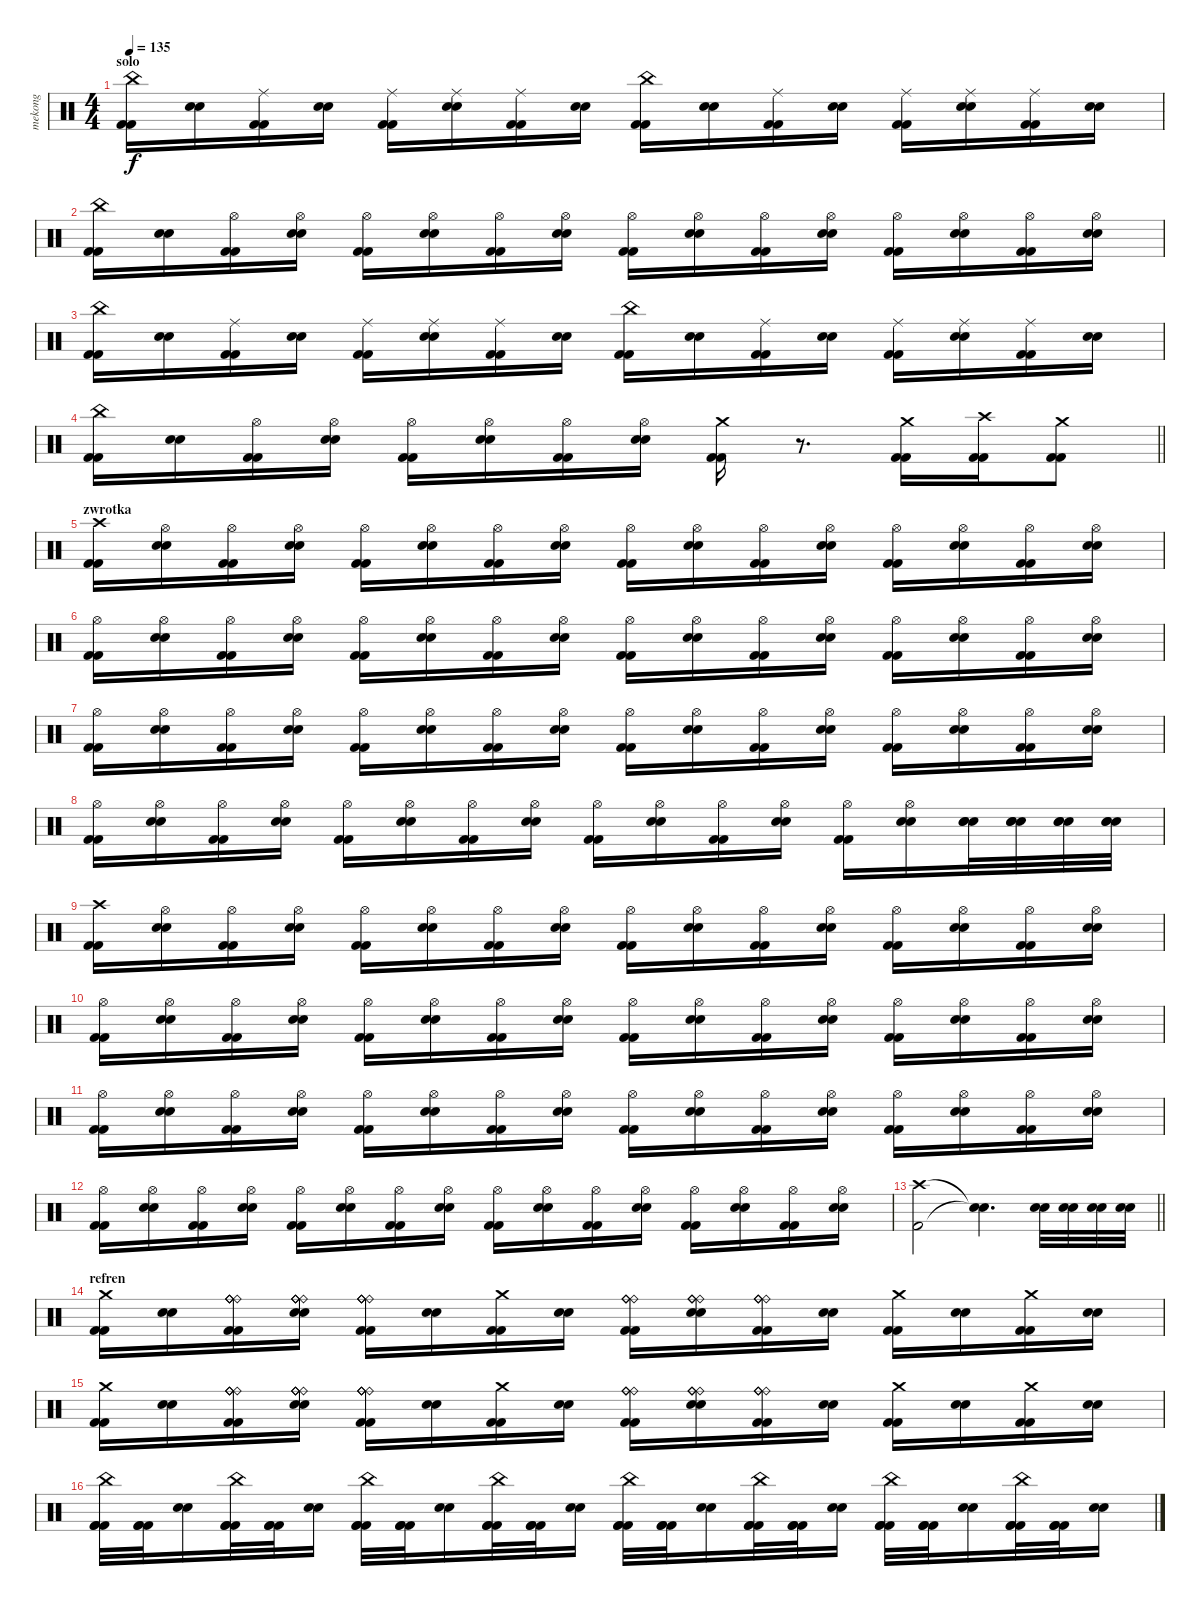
\track ("mekong" "mekong") {instrument percussion}
\staff {score}
\articulation defaults
\ts (4 4)
\section ("" "solo")
\tempo 135
\clef neutral
\ks c
("China (hit)" "Kick (hit) 2" "Kick (hit) 2").16{dy f} ("Electric Snare (hit)" "Electric Snare (hit)").16 ("Ride (middle)" "Kick (hit) 2" "Kick (hit) 2").16 ("Electric Snare (hit)" "Electric Snare (hit)").16 ("Ride (middle)" "Kick (hit) 2" "Kick (hit) 2").16 ("Ride (middle)" "Electric Snare (hit)" "Electric Snare (hit)").16 ("Ride (middle)" "Kick (hit) 2" "Kick (hit) 2").16 ("Electric Snare (hit)" "Electric Snare (hit)").16 ("China (hit)" "Kick (hit) 2" "Kick (hit) 2").16 ("Electric Snare (hit)" "Electric Snare (hit)").16 ("Ride (middle)" "Kick (hit) 2" "Kick (hit) 2").16 ("Electric Snare (hit)" "Electric Snare (hit)").16 ("Ride (middle)" "Kick (hit) 2" "Kick (hit) 2").16 ("Ride (middle)" "Electric Snare (hit)" "Electric Snare (hit)").16 ("Ride (middle)" "Kick (hit) 2" "Kick (hit) 2").16 ("Electric Snare (hit)" "Electric Snare (hit)").16 |
("China (hit)" "Kick (hit) 2" "Kick (hit) 2").16 ("Electric Snare (hit)" "Electric Snare (hit)").16 ("Hi-Hat (open)" "Kick (hit) 2" "Kick (hit) 2").16 ("Hi-Hat (open)" "Electric Snare (hit)" "Electric Snare (hit)").16 ("Hi-Hat (open)" "Kick (hit) 2" "Kick (hit) 2").16 ("Hi-Hat (open)" "Electric Snare (hit)" "Electric Snare (hit)").16 ("Hi-Hat (open)" "Kick (hit) 2" "Kick (hit) 2").16 ("Hi-Hat (open)" "Electric Snare (hit)" "Electric Snare (hit)").16 ("Hi-Hat (open)" "Kick (hit) 2" "Kick (hit) 2").16 ("Hi-Hat (open)" "Electric Snare (hit)" "Electric Snare (hit)").16 ("Hi-Hat (open)" "Kick (hit) 2" "Kick (hit) 2").16 ("Hi-Hat (open)" "Electric Snare (hit)" "Electric Snare (hit)").16 ("Hi-Hat (open)" "Kick (hit) 2" "Kick (hit) 2").16 ("Hi-Hat (open)" "Electric Snare (hit)" "Electric Snare (hit)").16 ("Hi-Hat (open)" "Kick (hit) 2" "Kick (hit) 2").16 ("Hi-Hat (open)" "Electric Snare (hit)" "Electric Snare (hit)").16 |
("China (hit)" "Kick (hit) 2" "Kick (hit) 2").16 ("Electric Snare (hit)" "Electric Snare (hit)").16 ("Ride (middle)" "Kick (hit) 2" "Kick (hit) 2").16 ("Electric Snare (hit)" "Electric Snare (hit)").16 ("Ride (middle)" "Kick (hit) 2" "Kick (hit) 2").16 ("Ride (middle)" "Electric Snare (hit)" "Electric Snare (hit)").16 ("Ride (middle)" "Kick (hit) 2" "Kick (hit) 2").16 ("Electric Snare (hit)" "Electric Snare (hit)").16 ("China (hit)" "Kick (hit) 2" "Kick (hit) 2").16 ("Electric Snare (hit)" "Electric Snare (hit)").16 ("Ride (middle)" "Kick (hit) 2" "Kick (hit) 2").16 ("Electric Snare (hit)" "Electric Snare (hit)").16 ("Ride (middle)" "Kick (hit) 2" "Kick (hit) 2").16 ("Ride (middle)" "Electric Snare (hit)" "Electric Snare (hit)").16 ("Ride (middle)" "Kick (hit) 2" "Kick (hit) 2").16 ("Electric Snare (hit)" "Electric Snare (hit)").16 |
\barLineRight lightlight
("China (hit)" "Kick (hit) 2" "Kick (hit) 2").16 ("Electric Snare (hit)" "Electric Snare (hit)").16 ("Hi-Hat (open)" "Kick (hit) 2" "Kick (hit) 2").16 ("Hi-Hat (open)" "Electric Snare (hit)" "Electric Snare (hit)").16 ("Hi-Hat (open)" "Kick (hit) 2" "Kick (hit) 2").16 ("Hi-Hat (open)" "Electric Snare (hit)" "Electric Snare (hit)").16 ("Hi-Hat (open)" "Kick (hit) 2" "Kick (hit) 2").16 ("Hi-Hat (open)" "Electric Snare (hit)" "Electric Snare (hit)").16 ("Crash medium (hit)" "Kick (hit) 2" "Kick (hit) 2").16 r.8{d} ("Crash medium (hit)" "Kick (hit) 2" "Kick (hit) 2").16 ("Crash high (hit)" "Kick (hit) 2" "Kick (hit) 2").16 ("Crash medium (hit)" "Kick (hit) 2" "Kick (hit) 2").8 |
\section ("" "zwrotka")
("Crash high (hit)" "Kick (hit) 2" "Kick (hit) 2").16 ("Hi-Hat (open)" "Electric Snare (hit)" "Electric Snare (hit)").16 ("Hi-Hat (open)" "Kick (hit) 2" "Kick (hit) 2").16 ("Hi-Hat (open)" "Electric Snare (hit)" "Electric Snare (hit)").16 ("Hi-Hat (open)" "Kick (hit) 2" "Kick (hit) 2").16 ("Hi-Hat (open)" "Electric Snare (hit)" "Electric Snare (hit)").16 ("Hi-Hat (open)" "Kick (hit) 2" "Kick (hit) 2").16 ("Hi-Hat (open)" "Electric Snare (hit)" "Electric Snare (hit)").16 ("Hi-Hat (open)" "Kick (hit) 2" "Kick (hit) 2").16 ("Hi-Hat (open)" "Electric Snare (hit)" "Electric Snare (hit)").16 ("Hi-Hat (open)" "Kick (hit) 2" "Kick (hit) 2").16 ("Hi-Hat (open)" "Electric Snare (hit)" "Electric Snare (hit)").16 ("Hi-Hat (open)" "Kick (hit) 2" "Kick (hit) 2").16 ("Hi-Hat (open)" "Electric Snare (hit)" "Electric Snare (hit)").16 ("Hi-Hat (open)" "Kick (hit) 2" "Kick (hit) 2").16 ("Hi-Hat (open)" "Electric Snare (hit)" "Electric Snare (hit)").16 |
("Hi-Hat (open)" "Kick (hit) 2" "Kick (hit) 2").16 ("Hi-Hat (open)" "Electric Snare (hit)" "Electric Snare (hit)").16 ("Hi-Hat (open)" "Kick (hit) 2" "Kick (hit) 2").16 ("Hi-Hat (open)" "Electric Snare (hit)" "Electric Snare (hit)").16 ("Hi-Hat (open)" "Kick (hit) 2" "Kick (hit) 2").16 ("Hi-Hat (open)" "Electric Snare (hit)" "Electric Snare (hit)").16 ("Hi-Hat (open)" "Kick (hit) 2" "Kick (hit) 2").16 ("Hi-Hat (open)" "Electric Snare (hit)" "Electric Snare (hit)").16 ("Hi-Hat (open)" "Kick (hit) 2" "Kick (hit) 2").16 ("Hi-Hat (open)" "Electric Snare (hit)" "Electric Snare (hit)").16 ("Hi-Hat (open)" "Kick (hit) 2" "Kick (hit) 2").16 ("Hi-Hat (open)" "Electric Snare (hit)" "Electric Snare (hit)").16 ("Hi-Hat (open)" "Kick (hit) 2" "Kick (hit) 2").16 ("Hi-Hat (open)" "Electric Snare (hit)" "Electric Snare (hit)").16 ("Hi-Hat (open)" "Kick (hit) 2" "Kick (hit) 2").16 ("Hi-Hat (open)" "Electric Snare (hit)" "Electric Snare (hit)").16 |
("Hi-Hat (open)" "Kick (hit) 2" "Kick (hit) 2").16 ("Hi-Hat (open)" "Electric Snare (hit)" "Electric Snare (hit)").16 ("Hi-Hat (open)" "Kick (hit) 2" "Kick (hit) 2").16 ("Hi-Hat (open)" "Electric Snare (hit)" "Electric Snare (hit)").16 ("Hi-Hat (open)" "Kick (hit) 2" "Kick (hit) 2").16 ("Hi-Hat (open)" "Electric Snare (hit)" "Electric Snare (hit)").16 ("Hi-Hat (open)" "Kick (hit) 2" "Kick (hit) 2").16 ("Hi-Hat (open)" "Electric Snare (hit)" "Electric Snare (hit)").16 ("Hi-Hat (open)" "Kick (hit) 2" "Kick (hit) 2").16 ("Hi-Hat (open)" "Electric Snare (hit)" "Electric Snare (hit)").16 ("Hi-Hat (open)" "Kick (hit) 2" "Kick (hit) 2").16 ("Hi-Hat (open)" "Electric Snare (hit)" "Electric Snare (hit)").16 ("Hi-Hat (open)" "Kick (hit) 2" "Kick (hit) 2").16 ("Hi-Hat (open)" "Electric Snare (hit)" "Electric Snare (hit)").16 ("Hi-Hat (open)" "Kick (hit) 2" "Kick (hit) 2").16 ("Hi-Hat (open)" "Electric Snare (hit)" "Electric Snare (hit)").16 |
("Hi-Hat (open)" "Kick (hit) 2" "Kick (hit) 2").16 ("Hi-Hat (open)" "Electric Snare (hit)" "Electric Snare (hit)").16 ("Hi-Hat (open)" "Kick (hit) 2" "Kick (hit) 2").16 ("Hi-Hat (open)" "Electric Snare (hit)" "Electric Snare (hit)").16 ("Hi-Hat (open)" "Kick (hit) 2" "Kick (hit) 2").16 ("Hi-Hat (open)" "Electric Snare (hit)" "Electric Snare (hit)").16 ("Hi-Hat (open)" "Kick (hit) 2" "Kick (hit) 2").16 ("Hi-Hat (open)" "Electric Snare (hit)" "Electric Snare (hit)").16 ("Hi-Hat (open)" "Kick (hit) 2" "Kick (hit) 2").16 ("Hi-Hat (open)" "Electric Snare (hit)" "Electric Snare (hit)").16 ("Hi-Hat (open)" "Kick (hit) 2" "Kick (hit) 2").16 ("Hi-Hat (open)" "Electric Snare (hit)" "Electric Snare (hit)").16 ("Hi-Hat (open)" "Kick (hit) 2" "Kick (hit) 2").16 ("Hi-Hat (open)" "Electric Snare (hit)" "Electric Snare (hit)").16 ("Electric Snare (hit)" "Electric Snare (hit)" "Electric Snare (hit)").32 ("Electric Snare (hit)" "Electric Snare (hit)" "Electric Snare (hit)").32 ("Electric Snare (hit)" "Electric Snare (hit)" "Electric Snare (hit)").32 ("Electric Snare (hit)" "Electric Snare (hit)" "Electric Snare (hit)").32 |
("Crash high (hit)" "Kick (hit) 2" "Kick (hit) 2").16 ("Hi-Hat (open)" "Electric Snare (hit)" "Electric Snare (hit)").16 ("Hi-Hat (open)" "Kick (hit) 2" "Kick (hit) 2").16 ("Hi-Hat (open)" "Electric Snare (hit)" "Electric Snare (hit)").16 ("Hi-Hat (open)" "Kick (hit) 2" "Kick (hit) 2").16 ("Hi-Hat (open)" "Electric Snare (hit)" "Electric Snare (hit)").16 ("Hi-Hat (open)" "Kick (hit) 2" "Kick (hit) 2").16 ("Hi-Hat (open)" "Electric Snare (hit)" "Electric Snare (hit)").16 ("Hi-Hat (open)" "Kick (hit) 2" "Kick (hit) 2").16 ("Hi-Hat (open)" "Electric Snare (hit)" "Electric Snare (hit)").16 ("Hi-Hat (open)" "Kick (hit) 2" "Kick (hit) 2").16 ("Hi-Hat (open)" "Electric Snare (hit)" "Electric Snare (hit)").16 ("Hi-Hat (open)" "Kick (hit) 2" "Kick (hit) 2").16 ("Hi-Hat (open)" "Electric Snare (hit)" "Electric Snare (hit)").16 ("Hi-Hat (open)" "Kick (hit) 2" "Kick (hit) 2").16 ("Hi-Hat (open)" "Electric Snare (hit)" "Electric Snare (hit)").16 |
("Hi-Hat (open)" "Kick (hit) 2" "Kick (hit) 2").16 ("Hi-Hat (open)" "Electric Snare (hit)" "Electric Snare (hit)").16 ("Hi-Hat (open)" "Kick (hit) 2" "Kick (hit) 2").16 ("Hi-Hat (open)" "Electric Snare (hit)" "Electric Snare (hit)").16 ("Hi-Hat (open)" "Kick (hit) 2" "Kick (hit) 2").16 ("Hi-Hat (open)" "Electric Snare (hit)" "Electric Snare (hit)").16 ("Hi-Hat (open)" "Kick (hit) 2" "Kick (hit) 2").16 ("Hi-Hat (open)" "Electric Snare (hit)" "Electric Snare (hit)").16 ("Hi-Hat (open)" "Kick (hit) 2" "Kick (hit) 2").16 ("Hi-Hat (open)" "Electric Snare (hit)" "Electric Snare (hit)").16 ("Hi-Hat (open)" "Kick (hit) 2" "Kick (hit) 2").16 ("Hi-Hat (open)" "Electric Snare (hit)" "Electric Snare (hit)").16 ("Hi-Hat (open)" "Kick (hit) 2" "Kick (hit) 2").16 ("Hi-Hat (open)" "Electric Snare (hit)" "Electric Snare (hit)").16 ("Hi-Hat (open)" "Kick (hit) 2" "Kick (hit) 2").16 ("Hi-Hat (open)" "Electric Snare (hit)" "Electric Snare (hit)").16 |
("Hi-Hat (open)" "Kick (hit) 2" "Kick (hit) 2").16 ("Hi-Hat (open)" "Electric Snare (hit)" "Electric Snare (hit)").16 ("Hi-Hat (open)" "Kick (hit) 2" "Kick (hit) 2").16 ("Hi-Hat (open)" "Electric Snare (hit)" "Electric Snare (hit)").16 ("Hi-Hat (open)" "Kick (hit) 2" "Kick (hit) 2").16 ("Hi-Hat (open)" "Electric Snare (hit)" "Electric Snare (hit)").16 ("Hi-Hat (open)" "Kick (hit) 2" "Kick (hit) 2").16 ("Hi-Hat (open)" "Electric Snare (hit)" "Electric Snare (hit)").16 ("Hi-Hat (open)" "Kick (hit) 2" "Kick (hit) 2").16 ("Hi-Hat (open)" "Electric Snare (hit)" "Electric Snare (hit)").16 ("Hi-Hat (open)" "Kick (hit) 2" "Kick (hit) 2").16 ("Hi-Hat (open)" "Electric Snare (hit)" "Electric Snare (hit)").16 ("Hi-Hat (open)" "Kick (hit) 2" "Kick (hit) 2").16 ("Hi-Hat (open)" "Electric Snare (hit)" "Electric Snare (hit)").16 ("Hi-Hat (open)" "Kick (hit) 2" "Kick (hit) 2").16 ("Hi-Hat (open)" "Electric Snare (hit)" "Electric Snare (hit)").16 |
("Hi-Hat (open)" "Kick (hit) 2" "Kick (hit) 2").16 ("Hi-Hat (open)" "Electric Snare (hit)" "Electric Snare (hit)").16 ("Hi-Hat (open)" "Kick (hit) 2" "Kick (hit) 2").16 ("Hi-Hat (open)" "Electric Snare (hit)" "Electric Snare (hit)").16 ("Hi-Hat (open)" "Kick (hit) 2" "Kick (hit) 2").16 ("Hi-Hat (open)" "Electric Snare (hit)" "Electric Snare (hit)").16 ("Hi-Hat (open)" "Kick (hit) 2" "Kick (hit) 2").16 ("Hi-Hat (open)" "Electric Snare (hit)" "Electric Snare (hit)").16 ("Hi-Hat (open)" "Kick (hit) 2" "Kick (hit) 2").16 ("Hi-Hat (open)" "Electric Snare (hit)" "Electric Snare (hit)").16 ("Hi-Hat (open)" "Kick (hit) 2" "Kick (hit) 2").16 ("Hi-Hat (open)" "Electric Snare (hit)" "Electric Snare (hit)").16 ("Hi-Hat (open)" "Kick (hit) 2" "Kick (hit) 2").16 ("Hi-Hat (open)" "Electric Snare (hit)" "Electric Snare (hit)").16 ("Hi-Hat (open)" "Kick (hit) 2" "Kick (hit) 2").16 ("Hi-Hat (open)" "Electric Snare (hit)" "Electric Snare (hit)").16 |
\barLineRight lightlight
("Crash high (hit)" "Kick (hit) 2").2 ("Snare (hit)"{t} "Snare (hit)"{t}).4{d} ("Electric Snare (hit)" "Electric Snare (hit)").32 ("Electric Snare (hit)" "Electric Snare (hit)").32 ("Electric Snare (hit)" "Electric Snare (hit)").32 ("Electric Snare (hit)" "Electric Snare (hit)").32 |
\section ("" "refren")
("Crash medium (hit)" "Kick (hit) 2" "Kick (hit) 2").16 ("Electric Snare (hit)" "Electric Snare (hit)").16 ("Ride (bell)" "Ride (bell)" "Ride (bell)" "Ride (bell)" "Kick (hit) 2" "Kick (hit) 2").16 ("Ride (bell)" "Ride (bell)" "Ride (bell)" "Ride (bell)" "Electric Snare (hit)" "Electric Snare (hit)").16 ("Ride (bell)" "Ride (bell)" "Ride (bell)" "Ride (bell)" "Kick (hit) 2" "Kick (hit) 2").16 ("Electric Snare (hit)" "Electric Snare (hit)").16 ("Crash medium (hit)" "Kick (hit) 2" "Kick (hit) 2").16 ("Electric Snare (hit)" "Electric Snare (hit)").16 ("Ride (bell)" "Ride (bell)" "Ride (bell)" "Ride (bell)" "Kick (hit) 2" "Kick (hit) 2").16 ("Ride (bell)" "Ride (bell)" "Ride (bell)" "Ride (bell)" "Electric Snare (hit)" "Electric Snare (hit)").16 ("Ride (bell)" "Ride (bell)" "Ride (bell)" "Ride (bell)" "Kick (hit) 2" "Kick (hit) 2").16 ("Electric Snare (hit)" "Electric Snare (hit)").16 ("Crash medium (hit)" "Kick (hit) 2" "Kick (hit) 2").16 ("Electric Snare (hit)" "Electric Snare (hit)").16 ("Crash medium (hit)" "Kick (hit) 2" "Kick (hit) 2").16 ("Electric Snare (hit)" "Electric Snare (hit)").16 |
("Crash medium (hit)" "Kick (hit) 2" "Kick (hit) 2").16 ("Electric Snare (hit)" "Electric Snare (hit)").16 ("Ride (bell)" "Ride (bell)" "Ride (bell)" "Ride (bell)" "Kick (hit) 2" "Kick (hit) 2").16 ("Ride (bell)" "Ride (bell)" "Ride (bell)" "Ride (bell)" "Electric Snare (hit)" "Electric Snare (hit)").16 ("Ride (bell)" "Ride (bell)" "Ride (bell)" "Ride (bell)" "Kick (hit) 2" "Kick (hit) 2").16 ("Electric Snare (hit)" "Electric Snare (hit)").16 ("Crash medium (hit)" "Kick (hit) 2" "Kick (hit) 2").16 ("Electric Snare (hit)" "Electric Snare (hit)").16 ("Ride (bell)" "Ride (bell)" "Ride (bell)" "Ride (bell)" "Kick (hit) 2" "Kick (hit) 2").16 ("Ride (bell)" "Ride (bell)" "Ride (bell)" "Ride (bell)" "Electric Snare (hit)" "Electric Snare (hit)").16 ("Ride (bell)" "Ride (bell)" "Ride (bell)" "Ride (bell)" "Kick (hit) 2" "Kick (hit) 2").16 ("Electric Snare (hit)" "Electric Snare (hit)").16 ("Crash medium (hit)" "Kick (hit) 2" "Kick (hit) 2").16 ("Electric Snare (hit)" "Electric Snare (hit)").16 ("Crash medium (hit)" "Kick (hit) 2" "Kick (hit) 2").16 ("Electric Snare (hit)" "Electric Snare (hit)").16 |
("China (hit)" "Kick (hit) 2" "Kick (hit) 2" "Kick (hit) 2").32 ("Kick (hit) 2" "Kick (hit) 2" "Kick (hit) 2").32 ("Electric Snare (hit)" "Electric Snare (hit)").16 ("China (hit)" "Kick (hit) 2" "Kick (hit) 2" "Kick (hit) 2").32 ("Kick (hit) 2" "Kick (hit) 2" "Kick (hit) 2").32 ("Electric Snare (hit)" "Electric Snare (hit)").16 ("China (hit)" "Kick (hit) 2" "Kick (hit) 2" "Kick (hit) 2").32 ("Kick (hit) 2" "Kick (hit) 2" "Kick (hit) 2").32 ("Electric Snare (hit)" "Electric Snare (hit)").16 ("China (hit)" "Kick (hit) 2" "Kick (hit) 2" "Kick (hit) 2").32 ("Kick (hit) 2" "Kick (hit) 2" "Kick (hit) 2").32 ("Electric Snare (hit)" "Electric Snare (hit)").16 ("China (hit)" "Kick (hit) 2" "Kick (hit) 2" "Kick (hit) 2").32 ("Kick (hit) 2" "Kick (hit) 2" "Kick (hit) 2").32 ("Electric Snare (hit)" "Electric Snare (hit)").16 ("China (hit)" "Kick (hit) 2" "Kick (hit) 2" "Kick (hit) 2").32 ("Kick (hit) 2" "Kick (hit) 2" "Kick (hit) 2").32 ("Electric Snare (hit)" "Electric Snare (hit)").16 ("China (hit)" "Kick (hit) 2" "Kick (hit) 2" "Kick (hit) 2").32 ("Kick (hit) 2" "Kick (hit) 2" "Kick (hit) 2").32 ("Electric Snare (hit)" "Electric Snare (hit)").16 ("China (hit)" "Kick (hit) 2" "Kick (hit) 2" "Kick (hit) 2").32 ("Kick (hit) 2" "Kick (hit) 2" "Kick (hit) 2").32 ("Electric Snare (hit)" "Electric Snare (hit)").16
